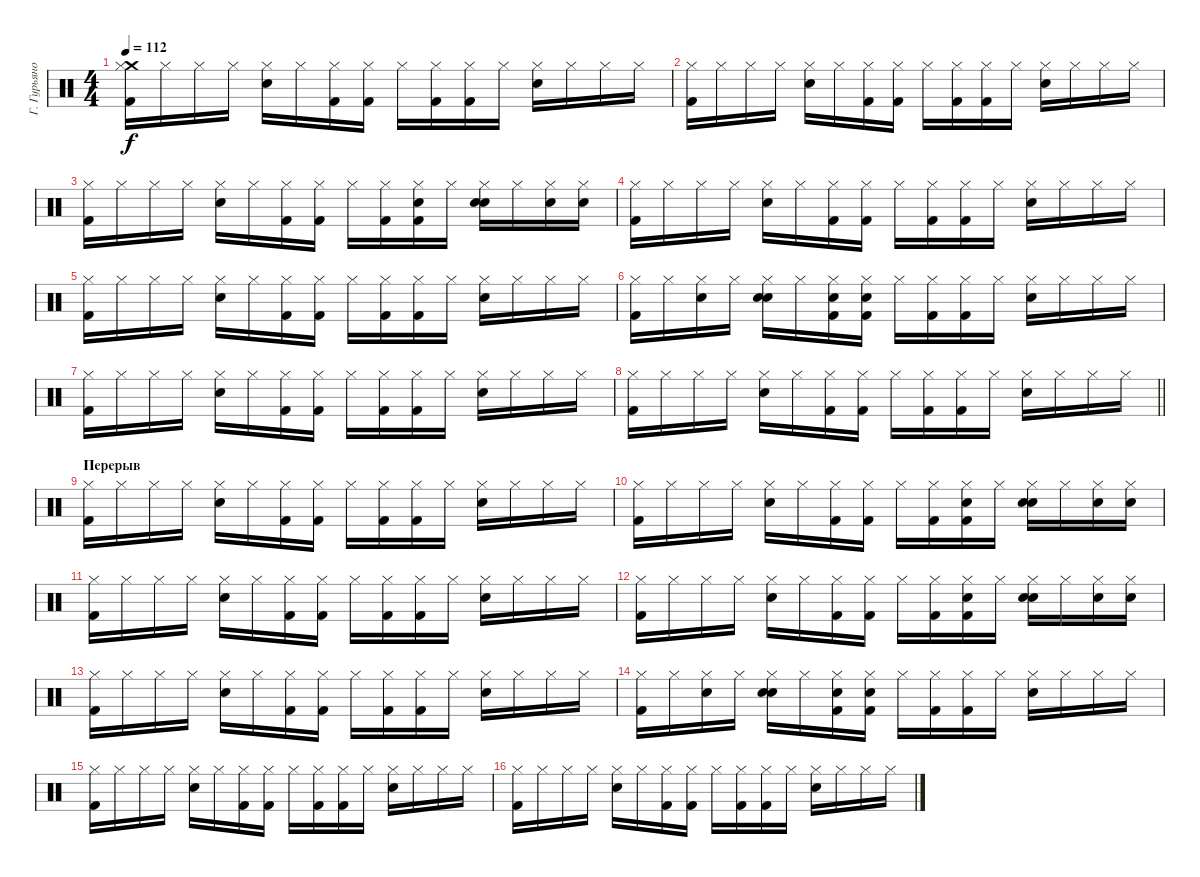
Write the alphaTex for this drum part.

\track ("Г. Гурьянов" "Г. Гурьяно") {instrument percussion}
\staff {score}
\articulation defaults
\ts (4 4)
\tempo 112
\clef neutral
\ks c
("Kick (hit) 2" "Crash medium (hit)" "Hi-Hat (closed)").16{dy f} "Hi-Hat (closed)".16 "Hi-Hat (closed)".16 "Hi-Hat (closed)".16 ("Snare (hit) 2" "Hi-Hat (closed)").16 "Hi-Hat (closed)".16 ("Kick (hit) 2" "Hi-Hat (closed)").16 ("Kick (hit) 2" "Hi-Hat (closed)").16 "Hi-Hat (closed)".16 ("Kick (hit) 2" "Hi-Hat (closed)").16 ("Kick (hit) 2" "Hi-Hat (closed)").16 "Hi-Hat (closed)".16 ("Snare (hit) 2" "Hi-Hat (closed)").16 "Hi-Hat (closed)".16 "Hi-Hat (closed)".16 "Hi-Hat (closed)".16 |
("Kick (hit) 2" "Hi-Hat (closed)").16 "Hi-Hat (closed)".16 "Hi-Hat (closed)".16 "Hi-Hat (closed)".16 ("Snare (hit) 2" "Hi-Hat (closed)").16 "Hi-Hat (closed)".16 ("Kick (hit) 2" "Hi-Hat (closed)").16 ("Kick (hit) 2" "Hi-Hat (closed)").16 "Hi-Hat (closed)".16 ("Kick (hit) 2" "Hi-Hat (closed)").16 ("Kick (hit) 2" "Hi-Hat (closed)").16 "Hi-Hat (closed)".16 ("Snare (hit) 2" "Hi-Hat (closed)").16 "Hi-Hat (closed)".16 "Hi-Hat (closed)".16 "Hi-Hat (closed)".16 |
("Kick (hit) 2" "Hi-Hat (closed)").16 "Hi-Hat (closed)".16 "Hi-Hat (closed)".16 "Hi-Hat (closed)".16 ("Snare (hit) 2" "Hi-Hat (closed)").16 "Hi-Hat (closed)".16 ("Kick (hit) 2" "Hi-Hat (closed)").16 ("Kick (hit) 2" "Hi-Hat (closed)").16 "Hi-Hat (closed)".16 ("Kick (hit) 2" "Hi-Hat (closed)").16 ("Kick (hit) 2" "Hand Clap (hit)" "Hi-Hat (closed)").16 "Hi-Hat (closed)".16 ("Snare (hit) 2" "Hand Clap (hit)" "Hi-Hat (closed)").16 "Hi-Hat (closed)".16 ("Hand Clap (hit)" "Hi-Hat (closed)").16 ("Hand Clap (hit)" "Hi-Hat (closed)").16 |
("Kick (hit) 2" "Hi-Hat (closed)").16 "Hi-Hat (closed)".16 "Hi-Hat (closed)".16 "Hi-Hat (closed)".16 ("Snare (hit) 2" "Hi-Hat (closed)").16 "Hi-Hat (closed)".16 ("Kick (hit) 2" "Hi-Hat (closed)").16 ("Kick (hit) 2" "Hi-Hat (closed)").16 "Hi-Hat (closed)".16 ("Kick (hit) 2" "Hi-Hat (closed)").16 ("Kick (hit) 2" "Hi-Hat (closed)").16 "Hi-Hat (closed)".16 ("Snare (hit) 2" "Hi-Hat (closed)").16 "Hi-Hat (closed)".16 "Hi-Hat (closed)".16 "Hi-Hat (closed)".16 |
("Kick (hit) 2" "Hi-Hat (closed)").16 "Hi-Hat (closed)".16 "Hi-Hat (closed)".16 "Hi-Hat (closed)".16 ("Snare (hit) 2" "Hi-Hat (closed)").16 "Hi-Hat (closed)".16 ("Kick (hit) 2" "Hi-Hat (closed)").16 ("Kick (hit) 2" "Hi-Hat (closed)").16 "Hi-Hat (closed)".16 ("Kick (hit) 2" "Hi-Hat (closed)").16 ("Kick (hit) 2" "Hi-Hat (closed)").16 "Hi-Hat (closed)".16 ("Snare (hit) 2" "Hi-Hat (closed)").16 "Hi-Hat (closed)".16 "Hi-Hat (closed)".16 "Hi-Hat (closed)".16 |
("Kick (hit) 2" "Hi-Hat (closed)").16 "Hi-Hat (closed)".16 ("Hand Clap (hit)" "Hi-Hat (closed)").16 "Hi-Hat (closed)".16 ("Snare (hit) 2" "Hand Clap (hit)" "Hi-Hat (closed)").16 "Hi-Hat (closed)".16 ("Kick (hit) 2" "Hand Clap (hit)" "Hi-Hat (closed)").16 ("Kick (hit) 2" "Hand Clap (hit)" "Hi-Hat (closed)").16 "Hi-Hat (closed)".16 ("Kick (hit) 2" "Hi-Hat (closed)").16 ("Kick (hit) 2" "Hi-Hat (closed)").16 "Hi-Hat (closed)".16 ("Snare (hit) 2" "Hi-Hat (closed)").16 "Hi-Hat (closed)".16 "Hi-Hat (closed)".16 "Hi-Hat (closed)".16 |
("Kick (hit) 2" "Hi-Hat (closed)").16 "Hi-Hat (closed)".16 "Hi-Hat (closed)".16 "Hi-Hat (closed)".16 ("Snare (hit) 2" "Hi-Hat (closed)").16 "Hi-Hat (closed)".16 ("Kick (hit) 2" "Hi-Hat (closed)").16 ("Kick (hit) 2" "Hi-Hat (closed)").16 "Hi-Hat (closed)".16 ("Kick (hit) 2" "Hi-Hat (closed)").16 ("Kick (hit) 2" "Hi-Hat (closed)").16 "Hi-Hat (closed)".16 ("Snare (hit) 2" "Hi-Hat (closed)").16 "Hi-Hat (closed)".16 "Hi-Hat (closed)".16 "Hi-Hat (closed)".16 |
\barLineRight lightlight
("Kick (hit) 2" "Hi-Hat (closed)").16 "Hi-Hat (closed)".16 "Hi-Hat (closed)".16 "Hi-Hat (closed)".16 ("Snare (hit) 2" "Hi-Hat (closed)").16 "Hi-Hat (closed)".16 ("Kick (hit) 2" "Hi-Hat (closed)").16 ("Kick (hit) 2" "Hi-Hat (closed)").16 "Hi-Hat (closed)".16 ("Kick (hit) 2" "Hi-Hat (closed)").16 ("Kick (hit) 2" "Hi-Hat (closed)").16 "Hi-Hat (closed)".16 ("Snare (hit) 2" "Hi-Hat (closed)").16 "Hi-Hat (closed)".16 "Hi-Hat (closed)".16 "Hi-Hat (closed)".16 |
\section ("" "Перерыв")
("Kick (hit) 2" "Hi-Hat (closed)").16 "Hi-Hat (closed)".16 "Hi-Hat (closed)".16 "Hi-Hat (closed)".16 ("Snare (hit) 2" "Hi-Hat (closed)").16 "Hi-Hat (closed)".16 ("Kick (hit) 2" "Hi-Hat (closed)").16 ("Kick (hit) 2" "Hi-Hat (closed)").16 "Hi-Hat (closed)".16 ("Kick (hit) 2" "Hi-Hat (closed)").16 ("Kick (hit) 2" "Hi-Hat (closed)").16 "Hi-Hat (closed)".16 ("Snare (hit) 2" "Hi-Hat (closed)").16 "Hi-Hat (closed)".16 "Hi-Hat (closed)".16 "Hi-Hat (closed)".16 |
("Kick (hit) 2" "Hi-Hat (closed)").16 "Hi-Hat (closed)".16 "Hi-Hat (closed)".16 "Hi-Hat (closed)".16 ("Snare (hit) 2" "Hi-Hat (closed)").16 "Hi-Hat (closed)".16 ("Kick (hit) 2" "Hi-Hat (closed)").16 ("Kick (hit) 2" "Hi-Hat (closed)").16 "Hi-Hat (closed)".16 ("Kick (hit) 2" "Hi-Hat (closed)").16 ("Kick (hit) 2" "Hand Clap (hit)" "Hi-Hat (closed)").16 "Hi-Hat (closed)".16 ("Snare (hit) 2" "Hand Clap (hit)" "Hi-Hat (closed)").16 "Hi-Hat (closed)".16 ("Hand Clap (hit)" "Hi-Hat (closed)").16 ("Hand Clap (hit)" "Hi-Hat (closed)").16 |
("Kick (hit) 2" "Hi-Hat (closed)").16 "Hi-Hat (closed)".16 "Hi-Hat (closed)".16 "Hi-Hat (closed)".16 ("Snare (hit) 2" "Hi-Hat (closed)").16 "Hi-Hat (closed)".16 ("Kick (hit) 2" "Hi-Hat (closed)").16 ("Kick (hit) 2" "Hi-Hat (closed)").16 "Hi-Hat (closed)".16 ("Kick (hit) 2" "Hi-Hat (closed)").16 ("Kick (hit) 2" "Hi-Hat (closed)").16 "Hi-Hat (closed)".16 ("Snare (hit) 2" "Hi-Hat (closed)").16 "Hi-Hat (closed)".16 "Hi-Hat (closed)".16 "Hi-Hat (closed)".16 |
("Kick (hit) 2" "Hi-Hat (closed)").16 "Hi-Hat (closed)".16 "Hi-Hat (closed)".16 "Hi-Hat (closed)".16 ("Snare (hit) 2" "Hi-Hat (closed)").16 "Hi-Hat (closed)".16 ("Kick (hit) 2" "Hi-Hat (closed)").16 ("Kick (hit) 2" "Hi-Hat (closed)").16 "Hi-Hat (closed)".16 ("Kick (hit) 2" "Hi-Hat (closed)").16 ("Kick (hit) 2" "Hand Clap (hit)" "Hi-Hat (closed)").16 "Hi-Hat (closed)".16 ("Snare (hit) 2" "Hand Clap (hit)" "Hi-Hat (closed)").16 "Hi-Hat (closed)".16 ("Hand Clap (hit)" "Hi-Hat (closed)").16 ("Hand Clap (hit)" "Hi-Hat (closed)").16 |
("Kick (hit) 2" "Hi-Hat (closed)").16 "Hi-Hat (closed)".16 "Hi-Hat (closed)".16 "Hi-Hat (closed)".16 ("Snare (hit) 2" "Hi-Hat (closed)").16 "Hi-Hat (closed)".16 ("Kick (hit) 2" "Hi-Hat (closed)").16 ("Kick (hit) 2" "Hi-Hat (closed)").16 "Hi-Hat (closed)".16 ("Kick (hit) 2" "Hi-Hat (closed)").16 ("Kick (hit) 2" "Hi-Hat (closed)").16 "Hi-Hat (closed)".16 ("Snare (hit) 2" "Hi-Hat (closed)").16 "Hi-Hat (closed)".16 "Hi-Hat (closed)".16 "Hi-Hat (closed)".16 |
("Kick (hit) 2" "Hi-Hat (closed)").16 "Hi-Hat (closed)".16 ("Hand Clap (hit)" "Hi-Hat (closed)").16 "Hi-Hat (closed)".16 ("Snare (hit) 2" "Hand Clap (hit)" "Hi-Hat (closed)").16 "Hi-Hat (closed)".16 ("Kick (hit) 2" "Hand Clap (hit)" "Hi-Hat (closed)").16 ("Kick (hit) 2" "Hand Clap (hit)" "Hi-Hat (closed)").16 "Hi-Hat (closed)".16 ("Kick (hit) 2" "Hi-Hat (closed)").16 ("Kick (hit) 2" "Hi-Hat (closed)").16 "Hi-Hat (closed)".16 ("Snare (hit) 2" "Hi-Hat (closed)").16 "Hi-Hat (closed)".16 "Hi-Hat (closed)".16 "Hi-Hat (closed)".16 |
("Kick (hit) 2" "Hi-Hat (closed)").16 "Hi-Hat (closed)".16 "Hi-Hat (closed)".16 "Hi-Hat (closed)".16 ("Snare (hit) 2" "Hi-Hat (closed)").16 "Hi-Hat (closed)".16 ("Kick (hit) 2" "Hi-Hat (closed)").16 ("Kick (hit) 2" "Hi-Hat (closed)").16 "Hi-Hat (closed)".16 ("Kick (hit) 2" "Hi-Hat (closed)").16 ("Kick (hit) 2" "Hi-Hat (closed)").16 "Hi-Hat (closed)".16 ("Snare (hit) 2" "Hi-Hat (closed)").16 "Hi-Hat (closed)".16 "Hi-Hat (closed)".16 "Hi-Hat (closed)".16 |
("Kick (hit) 2" "Hi-Hat (closed)").16 "Hi-Hat (closed)".16 "Hi-Hat (closed)".16 "Hi-Hat (closed)".16 ("Snare (hit) 2" "Hi-Hat (closed)").16 "Hi-Hat (closed)".16 ("Kick (hit) 2" "Hi-Hat (closed)").16 ("Kick (hit) 2" "Hi-Hat (closed)").16 "Hi-Hat (closed)".16 ("Kick (hit) 2" "Hi-Hat (closed)").16 ("Kick (hit) 2" "Hi-Hat (closed)").16 "Hi-Hat (closed)".16 ("Snare (hit) 2" "Hi-Hat (closed)").16 "Hi-Hat (closed)".16 "Hi-Hat (closed)".16 "Hi-Hat (closed)".16
